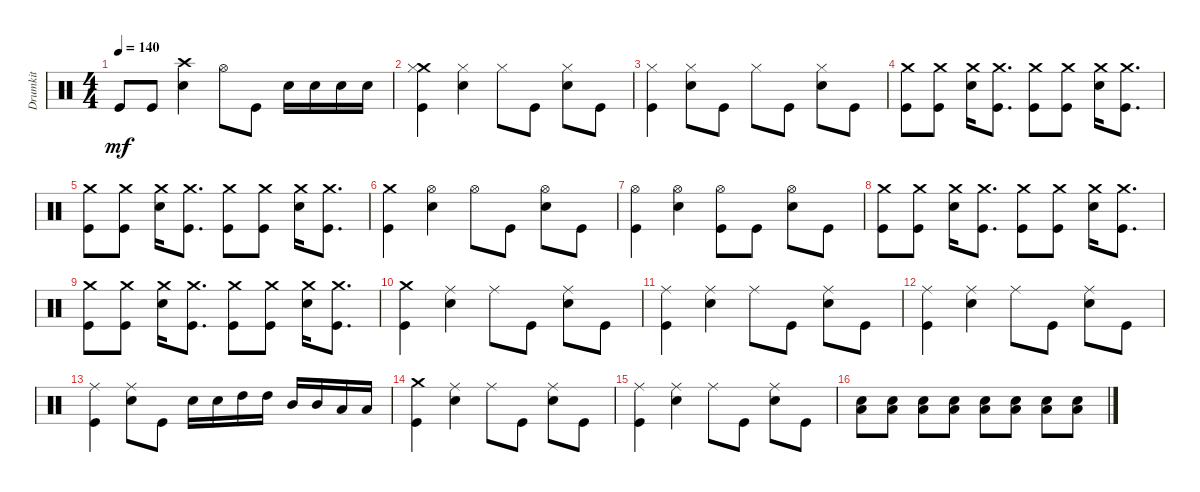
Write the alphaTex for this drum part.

\track ("Drumkit" "Drumkit") {instrument percussion}
\staff {score}
\articulation defaults
\ts (4 4)
\tempo 140
\clef neutral
\ks c "Kick (hit)".8{dy mf} "Kick (hit)".8
("Crash high (hit)" "Snare (hit) 2").4 "Hi-Hat (open)".8 "Kick (hit)".8 "Snare (hit) 2".16 "Snare (hit) 2".16 "Snare (hit) 2".16 "Snare (hit) 2".16 |
("Crash medium (hit)" "Hi-Hat (closed)" "Kick (hit)").4 ("Hi-Hat (closed)" "Snare (hit) 2").4 "Hi-Hat (closed)".8 "Kick (hit)".8 ("Hi-Hat (closed)" "Snare (hit) 2").8 "Kick (hit)".8 |
("Hi-Hat (closed)" "Kick (hit)").4 ("Hi-Hat (closed)" "Snare (hit) 2").8 "Kick (hit)".8 "Hi-Hat (closed)".8 "Kick (hit)".8 ("Hi-Hat (closed)" "Snare (hit) 2").8 "Kick (hit)".8 |
("Crash medium (hit)" "Kick (hit)").8 ("Crash medium (hit)" "Kick (hit)").8 ("Crash medium (hit)" "Snare (hit) 2").16 ("Crash medium (hit)" "Kick (hit)").8{d} ("Crash medium (hit)" "Kick (hit)").8 ("Crash medium (hit)" "Kick (hit)").8 ("Crash medium (hit)" "Snare (hit) 2").16 ("Crash medium (hit)" "Kick (hit)").8{d} |
("Crash medium (hit)" "Kick (hit)").8 ("Crash medium (hit)" "Kick (hit)").8 ("Crash medium (hit)" "Snare (hit) 2").16 ("Crash medium (hit)" "Kick (hit)").8{d} ("Crash medium (hit)" "Kick (hit)").8 ("Crash medium (hit)" "Kick (hit)").8 ("Crash medium (hit)" "Snare (hit) 2").16 ("Crash medium (hit)" "Kick (hit)").8{d} |
("Crash medium (hit)" "Kick (hit)").4 ("Hi-Hat (open)" "Snare (hit) 2").4 "Hi-Hat (open)".8 "Kick (hit)".8 ("Hi-Hat (open)" "Snare (hit) 2").8 "Kick (hit)".8 |
("Hi-Hat (open)" "Kick (hit)").4 ("Hi-Hat (open)" "Snare (hit) 2").4 ("Hi-Hat (open)" "Kick (hit)").8 "Kick (hit)".8 ("Hi-Hat (open)" "Snare (hit) 2").8 "Kick (hit)".8 |
("Crash medium (hit)" "Kick (hit)").8 ("Crash medium (hit)" "Kick (hit)").8 ("Crash medium (hit)" "Snare (hit) 2").16 ("Crash medium (hit)" "Kick (hit)").8{d} ("Crash medium (hit)" "Kick (hit)").8 ("Crash medium (hit)" "Kick (hit)").8 ("Crash medium (hit)" "Snare (hit) 2").16 ("Crash medium (hit)" "Kick (hit)").8{d} |
("Crash medium (hit)" "Kick (hit)").8 ("Crash medium (hit)" "Kick (hit)").8 ("Crash medium (hit)" "Snare (hit) 2").16 ("Crash medium (hit)" "Kick (hit)").8{d} ("Crash medium (hit)" "Kick (hit)").8 ("Crash medium (hit)" "Kick (hit)").8 ("Crash medium (hit)" "Snare (hit) 2").16 ("Crash medium (hit)" "Kick (hit)").8{d} |
("Crash medium (hit)" "Kick (hit)").4 ("Ride (middle)" "Snare (hit) 2").4 "Ride (middle)".8 "Kick (hit)".8 ("Ride (middle)" "Snare (hit) 2").8 "Kick (hit)".8 |
("Ride (middle)" "Kick (hit)").4 ("Ride (middle)" "Snare (hit) 2").4 "Ride (middle)".8 "Kick (hit)".8 ("Ride (middle)" "Snare (hit) 2").8 "Kick (hit)".8 |
("Ride (middle)" "Kick (hit)").4 ("Ride (middle)" "Snare (hit) 2").4 "Ride (middle)".8 "Kick (hit)".8 ("Ride (middle)" "Snare (hit) 2").8 "Kick (hit)".8 |
("Ride (middle)" "Kick (hit)").4 ("Ride (middle)" "Snare (hit) 2").8 "Kick (hit)".8 "Snare (hit) 2".16 "Snare (hit) 2".16 "High Tom (hit)".16 "High Tom (hit)".16 "Mid Tom (hit)".16 "Mid Tom (hit)".16 "Low Tom (hit)".16 "Low Tom (hit)".16 |
("Crash medium (hit)" "Kick (hit)").4 ("Ride (middle)" "Snare (hit) 2").4 "Ride (middle)".8 "Kick (hit)".8 ("Ride (middle)" "Snare (hit) 2").8 "Kick (hit)".8 |
("Ride (middle)" "Kick (hit)").4 ("Ride (middle)" "Snare (hit) 2").4 "Ride (middle)".8 "Kick (hit)".8 ("Ride (middle)" "Snare (hit) 2").8 "Kick (hit)".8 |
("Snare (hit) 2" "Low Tom (hit)").8 ("Snare (hit) 2" "Low Tom (hit)").8 ("Snare (hit) 2" "Low Tom (hit)").8 ("Snare (hit) 2" "Low Tom (hit)").8 ("Snare (hit) 2" "Low Tom (hit)").8 ("Snare (hit) 2" "Low Tom (hit)").8 ("Snare (hit) 2" "Low Tom (hit)").8 ("Snare (hit) 2" "Low Tom (hit)").8
